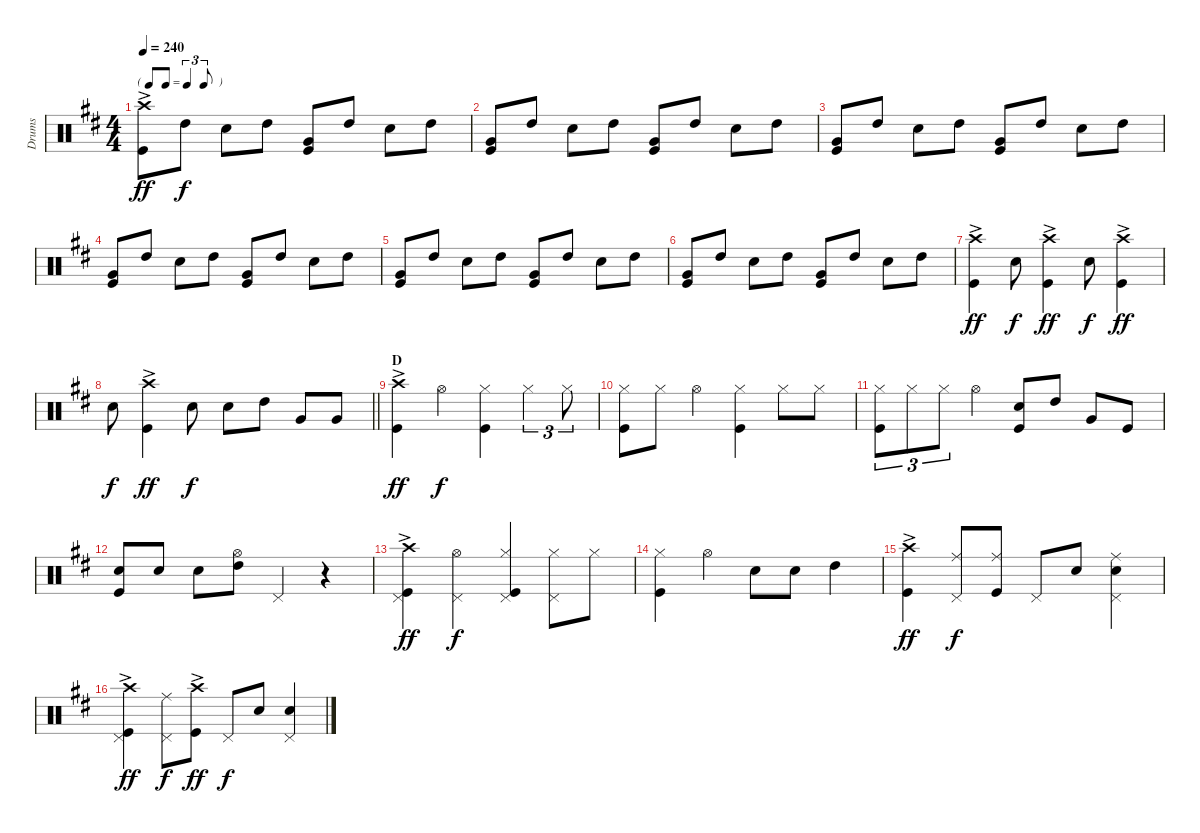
\track ("Drums" "Drums") {instrument percussion}
\staff {score}
\articulation defaults
\ts (4 4)
\tf triplet8th
\tempo 240
\clef neutral
\ks d
("Crash high (hit)"{ac} "Kick (hit)").8{dy ff} "High Tom (hit)".8{dy f} "Snare (hit) 2".8 "High Tom (hit)".8 ("Kick (hit)" "Very Low Tom (hit)").8 "High Tom (hit)".8 "Snare (hit) 2".8 "High Tom (hit)".8 |
("Kick (hit)" "Very Low Tom (hit)").8 "High Tom (hit)".8 "Snare (hit) 2".8 "High Tom (hit)".8 ("Kick (hit)" "Very Low Tom (hit)").8 "High Tom (hit)".8 "Snare (hit) 2".8 "High Tom (hit)".8 |
("Kick (hit)" "Very Low Tom (hit)").8 "High Tom (hit)".8 "Snare (hit) 2".8 "High Tom (hit)".8 ("Kick (hit)" "Very Low Tom (hit)").8 "High Tom (hit)".8 "Snare (hit) 2".8 "High Tom (hit)".8 |
("Kick (hit)" "Very Low Tom (hit)").8 "High Tom (hit)".8 "Snare (hit) 2".8 "High Tom (hit)".8 ("Kick (hit)" "Very Low Tom (hit)").8 "High Tom (hit)".8 "Snare (hit) 2".8 "High Tom (hit)".8 |
("Kick (hit)" "Very Low Tom (hit)").8 "High Tom (hit)".8 "Snare (hit) 2".8 "High Tom (hit)".8 ("Kick (hit)" "Very Low Tom (hit)").8 "High Tom (hit)".8 "Snare (hit) 2".8 "High Tom (hit)".8 |
("Kick (hit)" "Very Low Tom (hit)").8 "High Tom (hit)".8 "Snare (hit) 2".8 "High Tom (hit)".8 ("Kick (hit)" "Very Low Tom (hit)").8 "High Tom (hit)".8 "Snare (hit) 2".8 "High Tom (hit)".8 |
("Kick (hit)" "Crash high (hit)"{ac}).4{dy ff} "Snare (hit) 2".8{dy f} ("Crash high (hit)"{ac} "Kick (hit)").4{dy ff} "Snare (hit) 2".8{dy f} ("Kick (hit)" "Crash high (hit)"{ac}).4{dy ff} |
\barLineRight lightlight "Snare (hit) 2".8{dy f}
("Kick (hit)" "Crash high (hit)"{ac}).4{dy ff} "Snare (hit) 2".8{dy f} "Snare (hit) 2".8 "High Tom (hit)".8 "Very Low Tom (hit)".8 "Very Low Tom (hit)".8 |
\section ("" "D")
("Crash high (hit)"{ac} "Kick (hit)").4{dy ff} "Hi-Hat (open)".4{dy f} ("Hi-Hat (closed)" "Kick (hit)").4 "Hi-Hat (closed)".4{tu (3 2)} "Hi-Hat (closed)".8{tu (3 2)} |
("Hi-Hat (closed)" "Kick (hit)").8 "Hi-Hat (closed)".8 "Hi-Hat (open)".4 ("Hi-Hat (closed)" "Kick (hit)").4 "Hi-Hat (closed)".8 "Hi-Hat (closed)".8 |
("Kick (hit)" "Hi-Hat (closed)").8{tu (3 2)} "Hi-Hat (closed)".8{tu (3 2)} "Hi-Hat (closed)".8{tu (3 2)} "Hi-Hat (open)".4 ("Kick (hit)" "Snare (hit) 2").8 "High Tom (hit)".8 "Very Low Tom (hit)".8 "Kick (hit)".8 |
("Kick (hit)" "Snare (hit) 2").8 "Snare (hit) 2".8 "Snare (hit) 2".8 ("High Tom (hit)" "Hi-Hat (open)").8 "Pedal Hi-Hat (hit)".4 r.4 |
("Crash high (hit)"{ac} "Kick (hit)" "Pedal Hi-Hat (hit)").4{dy ff} ("Hi-Hat (open)" "Pedal Hi-Hat (hit)").4{dy f} ("Pedal Hi-Hat (hit)" "Kick (hit)" "Hi-Hat (closed)").4 ("Pedal Hi-Hat (hit)" "Hi-Hat (closed)").8 "Hi-Hat (closed)".8 |
("Hi-Hat (closed)" "Kick (hit)").4 "Hi-Hat (open)".4 "Snare (hit) 2".8 "Snare (hit) 2".8 "High Tom (hit)".4 |
("Crash high (hit)"{ac} "Kick (hit)").4{dy ff} ("Pedal Hi-Hat (hit)" "Ride (middle)").8{dy f} ("Ride (middle)" "Kick (hit)").8 "Pedal Hi-Hat (hit)".8 "Snare (hit) 2".8 ("Snare (hit) 2" "Ride (middle)" "Pedal Hi-Hat (hit)").4 |
("Crash high (hit)"{ac} "Kick (hit)" "Pedal Hi-Hat (hit)").4{dy ff} ("Ride (middle)" "Pedal Hi-Hat (hit)").8{dy f} ("Crash high (hit)"{ac} "Kick (hit)").8{dy ff} "Pedal Hi-Hat (hit)".8{dy f} "Snare (hit) 2".8 ("Snare (hit) 2" "Pedal Hi-Hat (hit)").4
